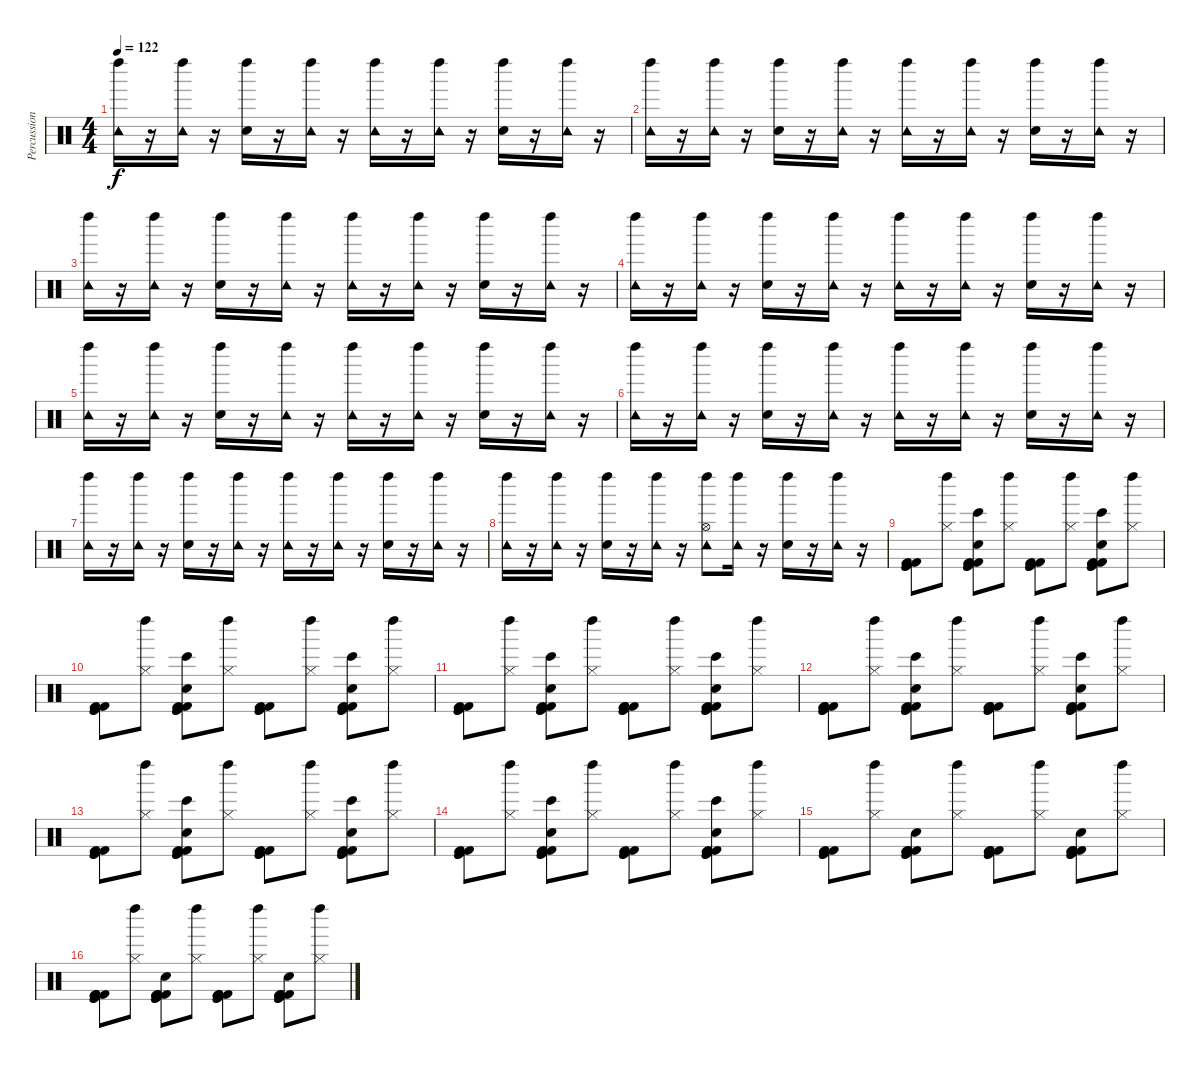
\track ("Percussion" "Percussion") {instrument percussion}
\staff {score}
\articulation defaults
\ts (4 4)
\tempo 122
\clef neutral
\ks c
("Tambourine (hit)" "Left Maraca (hit)").16{dy f} r.16 ("Tambourine (hit)" "Left Maraca (hit)").16 r.16 ("Hand Clap (hit)" "Left Maraca (hit)").16 r.16 ("Tambourine (hit)" "Left Maraca (hit)").16 r.16 ("Tambourine (hit)" "Left Maraca (hit)").16 r.16 ("Tambourine (hit)" "Left Maraca (hit)").16 r.16 ("Hand Clap (hit)" "Left Maraca (hit)").16 r.16 ("Tambourine (hit)" "Left Maraca (hit)").16 r.16 |
("Tambourine (hit)" "Left Maraca (hit)").16 r.16 ("Tambourine (hit)" "Left Maraca (hit)").16 r.16 ("Hand Clap (hit)" "Left Maraca (hit)").16 r.16 ("Tambourine (hit)" "Left Maraca (hit)").16 r.16 ("Tambourine (hit)" "Left Maraca (hit)").16 r.16 ("Tambourine (hit)" "Left Maraca (hit)").16 r.16 ("Hand Clap (hit)" "Left Maraca (hit)").16 r.16 ("Tambourine (hit)" "Left Maraca (hit)").16 r.16 |
("Tambourine (hit)" "Left Maraca (hit)").16 r.16 ("Tambourine (hit)" "Left Maraca (hit)").16 r.16 ("Hand Clap (hit)" "Left Maraca (hit)").16 r.16 ("Tambourine (hit)" "Left Maraca (hit)").16 r.16 ("Tambourine (hit)" "Left Maraca (hit)").16 r.16 ("Tambourine (hit)" "Left Maraca (hit)").16 r.16 ("Hand Clap (hit)" "Left Maraca (hit)").16 r.16 ("Tambourine (hit)" "Left Maraca (hit)").16 r.16 |
("Tambourine (hit)" "Left Maraca (hit)").16 r.16 ("Tambourine (hit)" "Left Maraca (hit)").16 r.16 ("Hand Clap (hit)" "Left Maraca (hit)").16 r.16 ("Tambourine (hit)" "Left Maraca (hit)").16 r.16 ("Tambourine (hit)" "Left Maraca (hit)").16 r.16 ("Tambourine (hit)" "Left Maraca (hit)").16 r.16 ("Hand Clap (hit)" "Left Maraca (hit)").16 r.16 ("Tambourine (hit)" "Left Maraca (hit)").16 r.16 |
("Tambourine (hit)" "Left Maraca (hit)").16 r.16 ("Tambourine (hit)" "Left Maraca (hit)").16 r.16 ("Hand Clap (hit)" "Left Maraca (hit)").16 r.16 ("Tambourine (hit)" "Left Maraca (hit)").16 r.16 ("Tambourine (hit)" "Left Maraca (hit)").16 r.16 ("Tambourine (hit)" "Left Maraca (hit)").16 r.16 ("Hand Clap (hit)" "Left Maraca (hit)").16 r.16 ("Tambourine (hit)" "Left Maraca (hit)").16 r.16 |
("Tambourine (hit)" "Left Maraca (hit)").16 r.16 ("Tambourine (hit)" "Left Maraca (hit)").16 r.16 ("Hand Clap (hit)" "Left Maraca (hit)").16 r.16 ("Tambourine (hit)" "Left Maraca (hit)").16 r.16 ("Tambourine (hit)" "Left Maraca (hit)").16 r.16 ("Tambourine (hit)" "Left Maraca (hit)").16 r.16 ("Hand Clap (hit)" "Left Maraca (hit)").16 r.16 ("Tambourine (hit)" "Left Maraca (hit)").16 r.16 |
("Tambourine (hit)" "Left Maraca (hit)").16 r.16 ("Tambourine (hit)" "Left Maraca (hit)").16 r.16 ("Hand Clap (hit)" "Left Maraca (hit)").16 r.16 ("Tambourine (hit)" "Left Maraca (hit)").16 r.16 ("Tambourine (hit)" "Left Maraca (hit)").16 r.16 ("Tambourine (hit)" "Left Maraca (hit)").16 r.16 ("Hand Clap (hit)" "Left Maraca (hit)").16 r.16 ("Tambourine (hit)" "Left Maraca (hit)").16 r.16 |
("Tambourine (hit)" "Left Maraca (hit)").16 r.16 ("Tambourine (hit)" "Left Maraca (hit)").16 r.16 ("Hand Clap (hit)" "Left Maraca (hit)").16 r.16 ("Tambourine (hit)" "Left Maraca (hit)").16 r.16 ("Hi-Hat (open)" "Tambourine (hit)" "Left Maraca (hit)").8 ("Tambourine (hit)" "Left Maraca (hit)").16 r.16 ("Hand Clap (hit)" "Left Maraca (hit)").16 r.16 ("Tambourine (hit)" "Left Maraca (hit)").16 r.16 |
("Kick (hit)" "Kick (hit)" "Kick (hit) 2" "Kick (hit) 2").8 ("Hi-Hat (closed)" "Left Maraca (hit)").8 ("Bongo High (hit)" "Kick (hit)" "Kick (hit)" "Kick (hit) 2" "Hand Clap (hit)" "Kick (hit) 2").8 ("Hi-Hat (closed)" "Left Maraca (hit)").8 ("Kick (hit)" "Kick (hit)" "Kick (hit) 2" "Kick (hit) 2").8 ("Hi-Hat (closed)" "Left Maraca (hit)").8 ("Bongo High (hit)" "Kick (hit)" "Kick (hit)" "Kick (hit) 2" "Hand Clap (hit)" "Kick (hit) 2").8 ("Hi-Hat (closed)" "Left Maraca (hit)").8 |
("Kick (hit)" "Kick (hit)" "Kick (hit) 2" "Kick (hit) 2").8 ("Hi-Hat (closed)" "Left Maraca (hit)").8 ("Bongo High (hit)" "Kick (hit)" "Kick (hit)" "Kick (hit) 2" "Hand Clap (hit)" "Kick (hit) 2").8 ("Hi-Hat (closed)" "Left Maraca (hit)").8 ("Kick (hit)" "Kick (hit)" "Kick (hit) 2" "Kick (hit) 2").8 ("Hi-Hat (closed)" "Left Maraca (hit)").8 ("Bongo High (hit)" "Kick (hit)" "Kick (hit)" "Kick (hit) 2" "Hand Clap (hit)" "Kick (hit) 2").8 ("Hi-Hat (closed)" "Left Maraca (hit)").8 |
("Kick (hit)" "Kick (hit)" "Kick (hit) 2" "Kick (hit) 2").8 ("Hi-Hat (closed)" "Left Maraca (hit)").8 ("Bongo High (hit)" "Kick (hit)" "Kick (hit)" "Kick (hit) 2" "Kick (hit) 2" "Hand Clap (hit)").8 ("Hi-Hat (closed)" "Left Maraca (hit)").8 ("Kick (hit)" "Kick (hit)" "Kick (hit) 2" "Kick (hit) 2" "Kick (hit) 2").8 ("Hi-Hat (closed)" "Left Maraca (hit)").8 ("Bongo High (hit)" "Kick (hit)" "Kick (hit)" "Kick (hit) 2" "Kick (hit) 2" "Hand Clap (hit)").8 ("Hi-Hat (closed)" "Left Maraca (hit)").8 |
("Kick (hit)" "Kick (hit)" "Kick (hit) 2" "Kick (hit) 2" "Kick (hit) 2").8 ("Hi-Hat (closed)" "Left Maraca (hit)").8 ("Bongo High (hit)" "Kick (hit)" "Kick (hit)" "Kick (hit) 2" "Kick (hit) 2" "Hand Clap (hit)").8 ("Hi-Hat (closed)" "Left Maraca (hit)").8 ("Kick (hit)" "Kick (hit)" "Kick (hit) 2" "Kick (hit) 2" "Kick (hit) 2").8 ("Hi-Hat (closed)" "Left Maraca (hit)").8 ("Bongo High (hit)" "Kick (hit)" "Kick (hit)" "Kick (hit) 2" "Kick (hit) 2" "Hand Clap (hit)").8 ("Hi-Hat (closed)" "Left Maraca (hit)").8 |
("Kick (hit)" "Kick (hit)" "Kick (hit) 2" "Kick (hit) 2").8 ("Hi-Hat (closed)" "Left Maraca (hit)").8 ("Kick (hit)" "Kick (hit)" "Kick (hit) 2" "Hand Clap (hit)" "Kick (hit) 2" "Bongo High (hit)").8 ("Hi-Hat (closed)" "Left Maraca (hit)").8 ("Kick (hit)" "Kick (hit)" "Kick (hit) 2" "Kick (hit) 2").8 ("Hi-Hat (closed)" "Left Maraca (hit)").8 ("Kick (hit)" "Kick (hit)" "Kick (hit) 2" "Hand Clap (hit)" "Kick (hit) 2" "Bongo High (hit)").8 ("Hi-Hat (closed)" "Left Maraca (hit)").8 |
("Kick (hit)" "Kick (hit)" "Kick (hit) 2" "Kick (hit) 2").8 ("Hi-Hat (closed)" "Left Maraca (hit)").8 ("Kick (hit)" "Kick (hit)" "Kick (hit) 2" "Hand Clap (hit)" "Kick (hit) 2" "Bongo High (hit)").8 ("Hi-Hat (closed)" "Left Maraca (hit)").8 ("Kick (hit)" "Kick (hit)" "Kick (hit) 2" "Kick (hit) 2").8 ("Hi-Hat (closed)" "Left Maraca (hit)").8 ("Kick (hit)" "Kick (hit)" "Kick (hit) 2" "Hand Clap (hit)" "Kick (hit) 2" "Bongo High (hit)").8 ("Hi-Hat (closed)" "Left Maraca (hit)").8 |
("Kick (hit)" "Kick (hit)" "Kick (hit) 2" "Kick (hit) 2").8 ("Hi-Hat (closed)" "Left Maraca (hit)").8 ("Kick (hit)" "Kick (hit)" "Kick (hit) 2" "Kick (hit) 2" "Hand Clap (hit)" "Kick (hit) 2").8 ("Hi-Hat (closed)" "Left Maraca (hit)").8 ("Kick (hit)" "Kick (hit)" "Kick (hit) 2" "Kick (hit) 2" "Kick (hit) 2").8 ("Hi-Hat (closed)" "Left Maraca (hit)").8 ("Kick (hit)" "Kick (hit)" "Kick (hit) 2" "Kick (hit) 2" "Hand Clap (hit)" "Kick (hit) 2").8 ("Hi-Hat (closed)" "Left Maraca (hit)").8 |
("Kick (hit)" "Kick (hit)" "Kick (hit) 2" "Kick (hit) 2" "Kick (hit) 2").8 ("Hi-Hat (closed)" "Left Maraca (hit)").8 ("Kick (hit)" "Kick (hit)" "Kick (hit) 2" "Kick (hit) 2" "Hand Clap (hit)" "Kick (hit) 2").8 ("Hi-Hat (closed)" "Left Maraca (hit)").8 ("Kick (hit)" "Kick (hit)" "Kick (hit) 2" "Kick (hit) 2" "Kick (hit) 2").8 ("Hi-Hat (closed)" "Left Maraca (hit)").8 ("Kick (hit)" "Kick (hit)" "Kick (hit) 2" "Kick (hit) 2" "Hand Clap (hit)" "Kick (hit) 2").8 ("Hi-Hat (closed)" "Left Maraca (hit)").8
